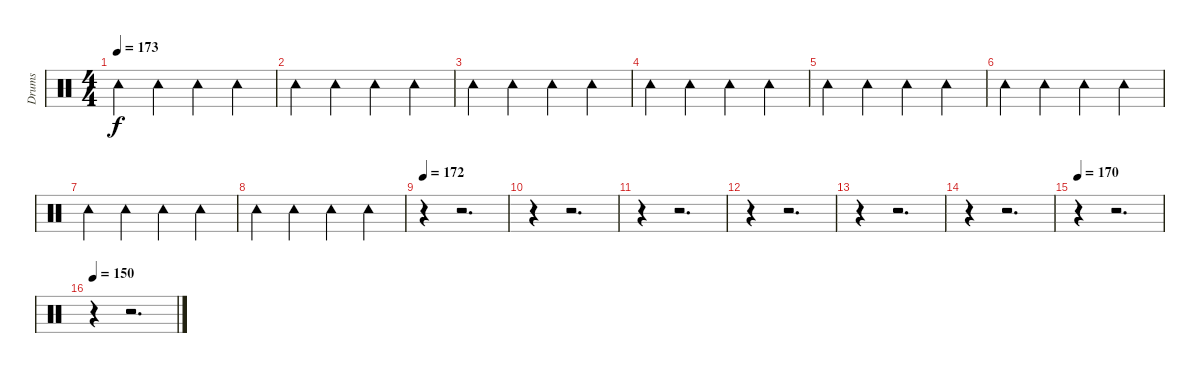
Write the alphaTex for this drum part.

\track ("Drums" "Drums") {instrument percussion}
\staff {score}
\articulation defaults
\ts (4 4)
\tempo 173
\clef neutral
\ks c "Tambourine (hit)".4{dy f} "Tambourine (hit)".4 "Tambourine (hit)".4 "Tambourine (hit)".4
|
"Tambourine (hit)".4 "Tambourine (hit)".4 "Tambourine (hit)".4 "Tambourine (hit)".4 |
"Tambourine (hit)".4 "Tambourine (hit)".4 "Tambourine (hit)".4 "Tambourine (hit)".4 |
"Tambourine (hit)".4 "Tambourine (hit)".4 "Tambourine (hit)".4 "Tambourine (hit)".4 |
"Tambourine (hit)".4 "Tambourine (hit)".4 "Tambourine (hit)".4 "Tambourine (hit)".4 |
"Tambourine (hit)".4 "Tambourine (hit)".4 "Tambourine (hit)".4 "Tambourine (hit)".4 |
"Tambourine (hit)".4 "Tambourine (hit)".4 "Tambourine (hit)".4 "Tambourine (hit)".4 |
"Tambourine (hit)".4 "Tambourine (hit)".4 "Tambourine (hit)".4 "Tambourine (hit)".4 |
\tempo 172
r.4 r.2{d} |
r.4 r.2{d} |
r.4 r.2{d} |
r.4 r.2{d} |
r.4 r.2{d} |
r.4 r.2{d} |
\tempo 170
r.4 r.2{d} |
\tempo 150
r.4 r.2{d}
